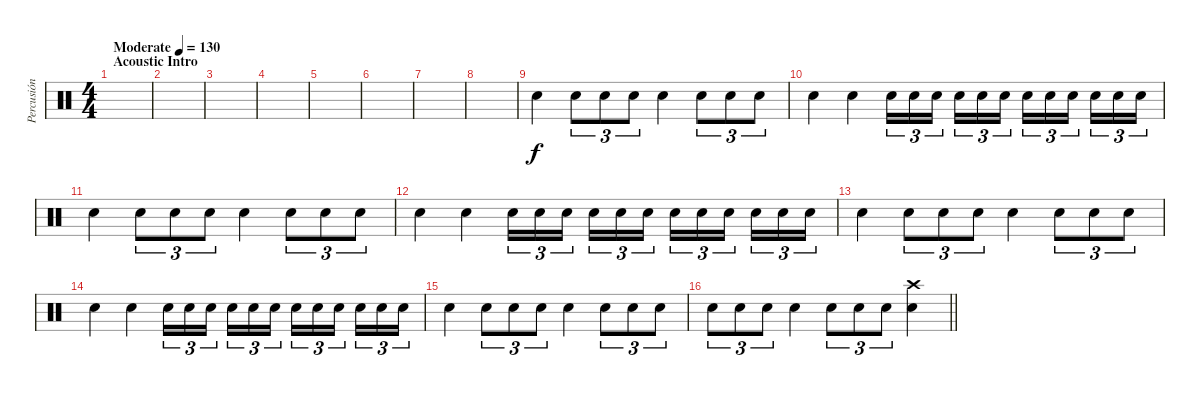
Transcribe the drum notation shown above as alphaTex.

\track ("Percusión" "Percusión") {instrument percussion}
\staff {score}
\articulation defaults
\ts (4 4)
\section ("" "Acoustic Intro")
\tempo (130 "Moderate")
\clef neutral
\ks c
|
|
|
|
|
|
|
|
"Snare (hit) 2".4 "Snare (hit) 2".8{tu (3 2)} "Snare (hit) 2".8{tu (3 2)} "Snare (hit) 2".8{tu (3 2)} "Snare (hit) 2".4 "Snare (hit) 2".8{tu (3 2)} "Snare (hit) 2".8{tu (3 2)} "Snare (hit) 2".8{tu (3 2)} |
"Snare (hit) 2".4 "Snare (hit) 2".4 "Snare (hit) 2".16{tu (3 2)} "Snare (hit) 2".16{tu (3 2)} "Snare (hit) 2".16{tu (3 2) beam splitsecondary} "Snare (hit) 2".16{tu (3 2)} "Snare (hit) 2".16{tu (3 2)} "Snare (hit) 2".16{tu (3 2)} "Snare (hit) 2".16{tu (3 2)} "Snare (hit) 2".16{tu (3 2)} "Snare (hit) 2".16{tu (3 2) beam splitsecondary} "Snare (hit) 2".16{tu (3 2)} "Snare (hit) 2".16{tu (3 2)} "Snare (hit) 2".16{tu (3 2)} |
"Snare (hit) 2".4 "Snare (hit) 2".8{tu (3 2)} "Snare (hit) 2".8{tu (3 2)} "Snare (hit) 2".8{tu (3 2)} "Snare (hit) 2".4 "Snare (hit) 2".8{tu (3 2)} "Snare (hit) 2".8{tu (3 2)} "Snare (hit) 2".8{tu (3 2)} |
"Snare (hit) 2".4 "Snare (hit) 2".4 "Snare (hit) 2".16{tu (3 2)} "Snare (hit) 2".16{tu (3 2)} "Snare (hit) 2".16{tu (3 2) beam splitsecondary} "Snare (hit) 2".16{tu (3 2)} "Snare (hit) 2".16{tu (3 2)} "Snare (hit) 2".16{tu (3 2)} "Snare (hit) 2".16{tu (3 2)} "Snare (hit) 2".16{tu (3 2)} "Snare (hit) 2".16{tu (3 2) beam splitsecondary} "Snare (hit) 2".16{tu (3 2)} "Snare (hit) 2".16{tu (3 2)} "Snare (hit) 2".16{tu (3 2)} |
"Snare (hit) 2".4 "Snare (hit) 2".8{tu (3 2)} "Snare (hit) 2".8{tu (3 2)} "Snare (hit) 2".8{tu (3 2)} "Snare (hit) 2".4 "Snare (hit) 2".8{tu (3 2)} "Snare (hit) 2".8{tu (3 2)} "Snare (hit) 2".8{tu (3 2)} |
"Snare (hit) 2".4 "Snare (hit) 2".4 "Snare (hit) 2".16{tu (3 2)} "Snare (hit) 2".16{tu (3 2)} "Snare (hit) 2".16{tu (3 2) beam splitsecondary} "Snare (hit) 2".16{tu (3 2)} "Snare (hit) 2".16{tu (3 2)} "Snare (hit) 2".16{tu (3 2)} "Snare (hit) 2".16{tu (3 2)} "Snare (hit) 2".16{tu (3 2)} "Snare (hit) 2".16{tu (3 2) beam splitsecondary} "Snare (hit) 2".16{tu (3 2)} "Snare (hit) 2".16{tu (3 2)} "Snare (hit) 2".16{tu (3 2)} |
"Snare (hit) 2".4 "Snare (hit) 2".8{tu (3 2)} "Snare (hit) 2".8{tu (3 2)} "Snare (hit) 2".8{tu (3 2)} "Snare (hit) 2".4 "Snare (hit) 2".8{tu (3 2)} "Snare (hit) 2".8{tu (3 2)} "Snare (hit) 2".8{tu (3 2)} |
\barLineRight lightlight "Snare (hit) 2".8{tu (3 2)} "Snare (hit) 2".8{tu (3 2)} "Snare (hit) 2".8{tu (3 2)} "Snare (hit) 2".4 "Snare (hit) 2".8{tu (3 2)} "Snare (hit) 2".8{tu (3 2)} "Snare (hit) 2".8{tu (3 2)}
("Snare (hit) 2" "Crash high (hit)").4
